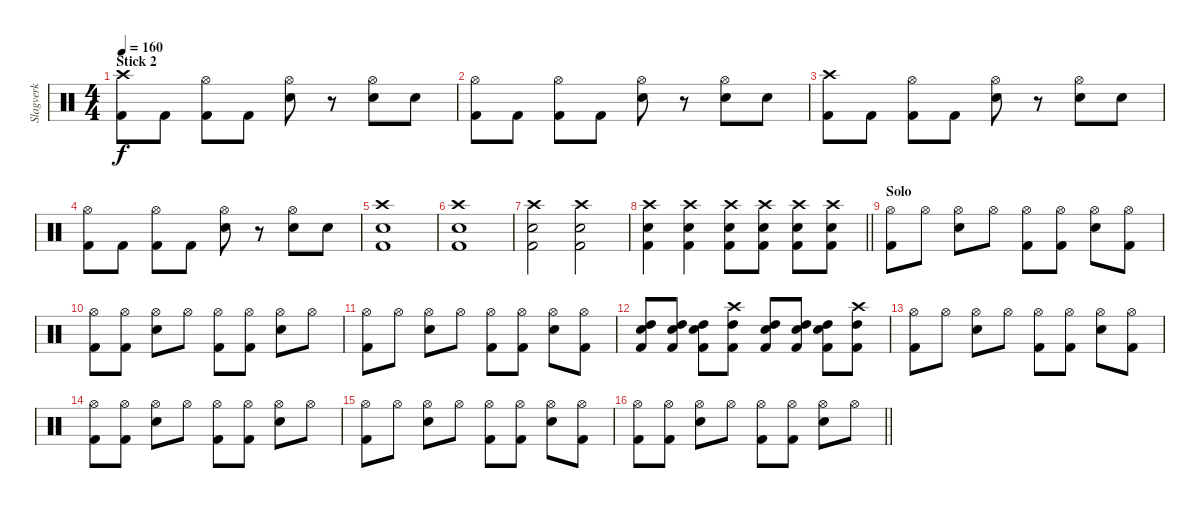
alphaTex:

\track ("Slagverk" "Slagverk") {instrument percussion}
\staff {score}
\articulation defaults
\ts (4 4)
\section ("" "Stick 2")
\tempo 160
\clef neutral
\ks c
("Crash high (hit)" "Kick (hit) 2").8{dy f} "Kick (hit) 2".8 ("Hi-Hat (open)" "Kick (hit) 2").8 "Kick (hit) 2".8 ("Hi-Hat (open)" "Snare (hit) 2").8 r.8 ("Hi-Hat (open)" "Snare (hit) 2").8 "Snare (hit) 2".8 |
("Hi-Hat (open)" "Kick (hit) 2").8 "Kick (hit) 2".8 ("Hi-Hat (open)" "Kick (hit) 2").8 "Kick (hit) 2".8 ("Hi-Hat (open)" "Snare (hit) 2").8 r.8 ("Hi-Hat (open)" "Snare (hit) 2").8 "Snare (hit) 2".8 |
("Crash high (hit)" "Kick (hit) 2").8 "Kick (hit) 2".8 ("Hi-Hat (open)" "Kick (hit) 2").8 "Kick (hit) 2".8 ("Hi-Hat (open)" "Snare (hit) 2").8 r.8 ("Hi-Hat (open)" "Snare (hit) 2").8 "Snare (hit) 2".8 |
("Hi-Hat (open)" "Kick (hit) 2").8 "Kick (hit) 2".8 ("Hi-Hat (open)" "Kick (hit) 2").8 "Kick (hit) 2".8 ("Hi-Hat (open)" "Snare (hit) 2").8 r.8 ("Hi-Hat (open)" "Snare (hit) 2").8 "Snare (hit) 2".8 |
("Crash high (hit)" "Snare (hit) 2" "Kick (hit) 2").1 |
("Crash high (hit)" "Snare (hit) 2" "Kick (hit) 2").1 |
("Crash high (hit)" "Snare (hit) 2" "Kick (hit) 2").2 ("Crash high (hit)" "Snare (hit) 2" "Kick (hit) 2").2 |
\barLineRight lightlight
("Crash high (hit)" "Snare (hit) 2" "Kick (hit) 2").4 ("Crash high (hit)" "Snare (hit) 2" "Kick (hit) 2").4 ("Crash high (hit)" "Snare (hit) 2" "Kick (hit) 2").8 ("Crash high (hit)" "Snare (hit) 2" "Kick (hit) 2").8 ("Crash high (hit)" "Snare (hit) 2" "Kick (hit) 2").8 ("Crash high (hit)" "Snare (hit) 2" "Kick (hit) 2").8 |
\section ("" "Solo")
("Hi-Hat (open)" "Kick (hit) 2").8 "Hi-Hat (open)".8 ("Snare (hit) 2" "Hi-Hat (open)").8 "Hi-Hat (open)".8 ("Hi-Hat (open)" "Kick (hit) 2").8 ("Hi-Hat (open)" "Kick (hit) 2").8 ("Snare (hit) 2" "Hi-Hat (open)").8 ("Hi-Hat (open)" "Kick (hit) 2").8 |
("Hi-Hat (open)" "Kick (hit) 2").8 ("Hi-Hat (open)" "Kick (hit) 2").8 ("Snare (hit) 2" "Hi-Hat (open)").8 "Hi-Hat (open)".8 ("Hi-Hat (open)" "Kick (hit) 2").8 ("Hi-Hat (open)" "Kick (hit) 2").8 ("Snare (hit) 2" "Hi-Hat (open)").8 "Hi-Hat (open)".8 |
("Hi-Hat (open)" "Kick (hit) 2").8 "Hi-Hat (open)".8 ("Snare (hit) 2" "Hi-Hat (open)").8 "Hi-Hat (open)".8 ("Hi-Hat (open)" "Kick (hit) 2").8 ("Hi-Hat (open)" "Kick (hit) 2").8 ("Snare (hit) 2" "Hi-Hat (open)").8 ("Hi-Hat (open)" "Kick (hit) 2").8 |
("Snare (hit) 2" "High Tom (hit)" "Kick (hit) 2").8 ("Snare (hit) 2" "High Tom (hit)" "Kick (hit) 2").8 ("Snare (hit) 2" "High Tom (hit)" "Kick (hit) 2").8 ("Crash high (hit)" "High Tom (hit)" "Kick (hit) 2").8 ("Snare (hit) 2" "High Tom (hit)" "Kick (hit) 2").8 ("Snare (hit) 2" "High Tom (hit)" "Kick (hit) 2").8 ("Snare (hit) 2" "High Tom (hit)" "Kick (hit) 2").8 ("Crash high (hit)" "High Tom (hit)" "Kick (hit) 2").8 |
("Hi-Hat (open)" "Kick (hit) 2").8 "Hi-Hat (open)".8 ("Snare (hit) 2" "Hi-Hat (open)").8 "Hi-Hat (open)".8 ("Hi-Hat (open)" "Kick (hit) 2").8 ("Hi-Hat (open)" "Kick (hit) 2").8 ("Snare (hit) 2" "Hi-Hat (open)").8 ("Hi-Hat (open)" "Kick (hit) 2").8 |
("Hi-Hat (open)" "Kick (hit) 2").8 ("Hi-Hat (open)" "Kick (hit) 2").8 ("Snare (hit) 2" "Hi-Hat (open)").8 "Hi-Hat (open)".8 ("Hi-Hat (open)" "Kick (hit) 2").8 ("Hi-Hat (open)" "Kick (hit) 2").8 ("Snare (hit) 2" "Hi-Hat (open)").8 "Hi-Hat (open)".8 |
("Hi-Hat (open)" "Kick (hit) 2").8 "Hi-Hat (open)".8 ("Snare (hit) 2" "Hi-Hat (open)").8 "Hi-Hat (open)".8 ("Hi-Hat (open)" "Kick (hit) 2").8 ("Hi-Hat (open)" "Kick (hit) 2").8 ("Snare (hit) 2" "Hi-Hat (open)").8 ("Hi-Hat (open)" "Kick (hit) 2").8 |
\barLineRight lightlight
("Hi-Hat (open)" "Kick (hit) 2").8 ("Hi-Hat (open)" "Kick (hit) 2").8 ("Snare (hit) 2" "Hi-Hat (open)").8 "Hi-Hat (open)".8 ("Hi-Hat (open)" "Kick (hit) 2").8 ("Hi-Hat (open)" "Kick (hit) 2").8 ("Snare (hit) 2" "Hi-Hat (open)").8 "Hi-Hat (open)".8
